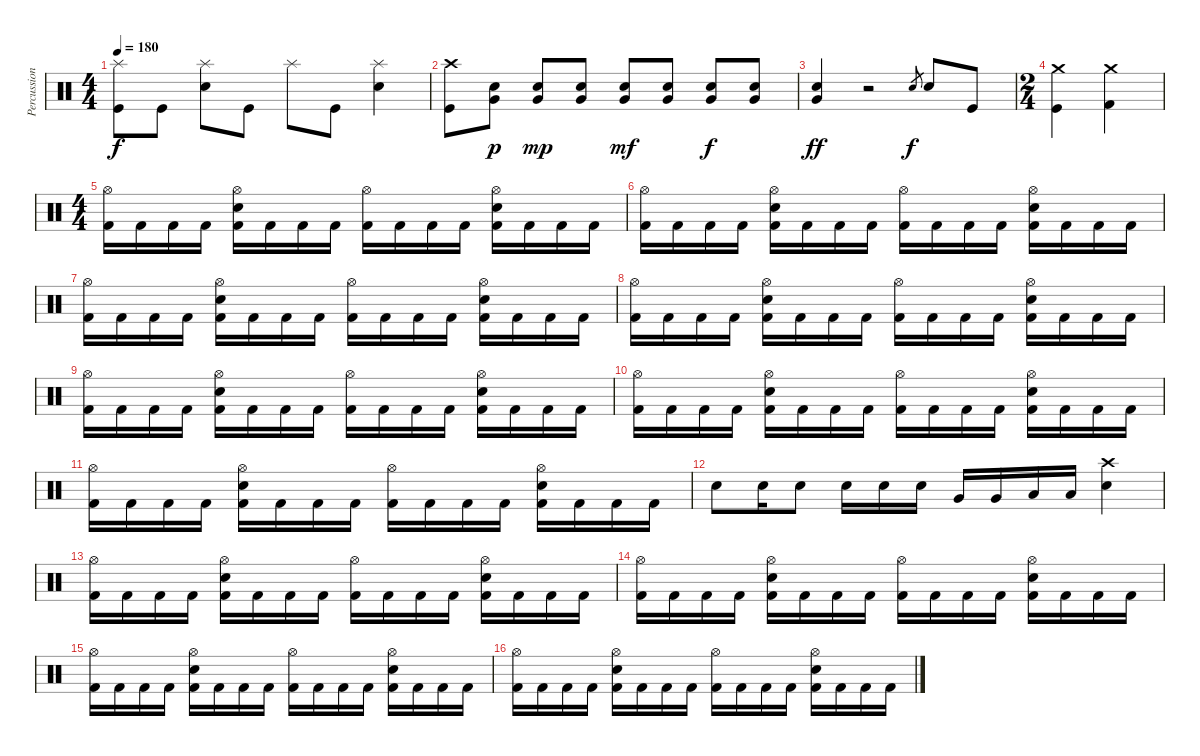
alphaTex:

\track ("Percussion" "Percussion") {instrument percussion}
\staff {score}
\articulation defaults
\ts (4 4)
\tempo 180
\clef neutral
\ks c
("Splash (hit)" "Kick (hit)").8{dy f} "Kick (hit)".8 ("Splash (hit)" "Electric Snare (hit)").8 "Kick (hit)".8 "Splash (hit)".8 "Kick (hit)".8 ("Splash (hit)" "Electric Snare (hit)").4 |
("Crash high (hit)" "Kick (hit)").8 ("Snare (hit) 2" "Very Low Tom (hit)").8{dy p} ("Snare (hit) 2" "Very Low Tom (hit)").8{dy mp} ("Snare (hit) 2" "Very Low Tom (hit)").8 ("Snare (hit) 2" "Very Low Tom (hit)").8{dy mf} ("Snare (hit) 2" "Very Low Tom (hit)").8 ("Snare (hit) 2" "Very Low Tom (hit)").8{dy f} ("Snare (hit) 2" "Very Low Tom (hit)").8 |
("Snare (hit) 2" "Very Low Tom (hit)").4{dy ff} r.2 "Snare (hit) 2".8{gr dy f} "Snare (hit) 2".8 "Kick (hit)".8 |
\ts (2 4)
("Crash medium (hit)" "Kick (hit)").4 ("Crash medium (hit)" "Kick (hit) 2").4 |
\ts (4 4)
("Hi-Hat (open)" "Kick (hit) 2").16 "Kick (hit) 2".16 "Kick (hit) 2".16 "Kick (hit) 2".16 ("Hi-Hat (open)" "Electric Snare (hit)" "Kick (hit) 2").16 "Kick (hit) 2".16 "Kick (hit) 2".16 "Kick (hit) 2".16 ("Hi-Hat (open)" "Kick (hit) 2").16 "Kick (hit) 2".16 "Kick (hit) 2".16 "Kick (hit) 2".16 ("Hi-Hat (open)" "Electric Snare (hit)" "Kick (hit) 2").16 "Kick (hit) 2".16 "Kick (hit) 2".16 "Kick (hit) 2".16 |
("Hi-Hat (open)" "Kick (hit) 2").16 "Kick (hit) 2".16 "Kick (hit) 2".16 "Kick (hit) 2".16 ("Hi-Hat (open)" "Electric Snare (hit)" "Kick (hit) 2").16 "Kick (hit) 2".16 "Kick (hit) 2".16 "Kick (hit) 2".16 ("Hi-Hat (open)" "Kick (hit) 2").16 "Kick (hit) 2".16 "Kick (hit) 2".16 "Kick (hit) 2".16 ("Hi-Hat (open)" "Electric Snare (hit)" "Kick (hit) 2").16 "Kick (hit) 2".16 "Kick (hit) 2".16 "Kick (hit) 2".16 |
("Hi-Hat (open)" "Kick (hit) 2").16 "Kick (hit) 2".16 "Kick (hit) 2".16 "Kick (hit) 2".16 ("Hi-Hat (open)" "Electric Snare (hit)" "Kick (hit) 2").16 "Kick (hit) 2".16 "Kick (hit) 2".16 "Kick (hit) 2".16 ("Hi-Hat (open)" "Kick (hit) 2").16 "Kick (hit) 2".16 "Kick (hit) 2".16 "Kick (hit) 2".16 ("Hi-Hat (open)" "Electric Snare (hit)" "Kick (hit) 2").16 "Kick (hit) 2".16 "Kick (hit) 2".16 "Kick (hit) 2".16 |
("Hi-Hat (open)" "Kick (hit) 2").16 "Kick (hit) 2".16 "Kick (hit) 2".16 "Kick (hit) 2".16 ("Hi-Hat (open)" "Electric Snare (hit)" "Kick (hit) 2").16 "Kick (hit) 2".16 "Kick (hit) 2".16 "Kick (hit) 2".16 ("Hi-Hat (open)" "Kick (hit) 2").16 "Kick (hit) 2".16 "Kick (hit) 2".16 "Kick (hit) 2".16 ("Hi-Hat (open)" "Electric Snare (hit)" "Kick (hit) 2").16 "Kick (hit) 2".16 "Kick (hit) 2".16 "Kick (hit) 2".16 |
("Hi-Hat (open)" "Kick (hit) 2").16 "Kick (hit) 2".16 "Kick (hit) 2".16 "Kick (hit) 2".16 ("Hi-Hat (open)" "Electric Snare (hit)" "Kick (hit) 2").16 "Kick (hit) 2".16 "Kick (hit) 2".16 "Kick (hit) 2".16 ("Hi-Hat (open)" "Kick (hit) 2").16 "Kick (hit) 2".16 "Kick (hit) 2".16 "Kick (hit) 2".16 ("Hi-Hat (open)" "Electric Snare (hit)" "Kick (hit) 2").16 "Kick (hit) 2".16 "Kick (hit) 2".16 "Kick (hit) 2".16 |
("Hi-Hat (open)" "Kick (hit) 2").16 "Kick (hit) 2".16 "Kick (hit) 2".16 "Kick (hit) 2".16 ("Hi-Hat (open)" "Electric Snare (hit)" "Kick (hit) 2").16 "Kick (hit) 2".16 "Kick (hit) 2".16 "Kick (hit) 2".16 ("Hi-Hat (open)" "Kick (hit) 2").16 "Kick (hit) 2".16 "Kick (hit) 2".16 "Kick (hit) 2".16 ("Hi-Hat (open)" "Electric Snare (hit)" "Kick (hit) 2").16 "Kick (hit) 2".16 "Kick (hit) 2".16 "Kick (hit) 2".16 |
("Hi-Hat (open)" "Kick (hit) 2").16 "Kick (hit) 2".16 "Kick (hit) 2".16 "Kick (hit) 2".16 ("Hi-Hat (open)" "Electric Snare (hit)" "Kick (hit) 2").16 "Kick (hit) 2".16 "Kick (hit) 2".16 "Kick (hit) 2".16 ("Hi-Hat (open)" "Kick (hit) 2").16 "Kick (hit) 2".16 "Kick (hit) 2".16 "Kick (hit) 2".16 ("Hi-Hat (open)" "Electric Snare (hit)" "Kick (hit) 2").16 "Kick (hit) 2".16 "Kick (hit) 2".16 "Kick (hit) 2".16 |
"Electric Snare (hit)".8 "Electric Snare (hit)".16 "Electric Snare (hit)".8 "Electric Snare (hit)".16 "Electric Snare (hit)".16 "Electric Snare (hit)".16 "Very Low Tom (hit)".16 "Very Low Tom (hit)".16 "Low Floor Tom (hit)".16 "Low Floor Tom (hit)".16 ("Crash high (hit)" "Electric Snare (hit)").4 |
("Hi-Hat (open)" "Kick (hit) 2").16 "Kick (hit) 2".16 "Kick (hit) 2".16 "Kick (hit) 2".16 ("Hi-Hat (open)" "Electric Snare (hit)" "Kick (hit) 2").16 "Kick (hit) 2".16 "Kick (hit) 2".16 "Kick (hit) 2".16 ("Hi-Hat (open)" "Kick (hit) 2").16 "Kick (hit) 2".16 "Kick (hit) 2".16 "Kick (hit) 2".16 ("Hi-Hat (open)" "Electric Snare (hit)" "Kick (hit) 2").16 "Kick (hit) 2".16 "Kick (hit) 2".16 "Kick (hit) 2".16 |
("Hi-Hat (open)" "Kick (hit) 2").16 "Kick (hit) 2".16 "Kick (hit) 2".16 "Kick (hit) 2".16 ("Hi-Hat (open)" "Electric Snare (hit)" "Kick (hit) 2").16 "Kick (hit) 2".16 "Kick (hit) 2".16 "Kick (hit) 2".16 ("Hi-Hat (open)" "Kick (hit) 2").16 "Kick (hit) 2".16 "Kick (hit) 2".16 "Kick (hit) 2".16 ("Hi-Hat (open)" "Electric Snare (hit)" "Kick (hit) 2").16 "Kick (hit) 2".16 "Kick (hit) 2".16 "Kick (hit) 2".16 |
("Hi-Hat (open)" "Kick (hit) 2").16 "Kick (hit) 2".16 "Kick (hit) 2".16 "Kick (hit) 2".16 ("Hi-Hat (open)" "Electric Snare (hit)" "Kick (hit) 2").16 "Kick (hit) 2".16 "Kick (hit) 2".16 "Kick (hit) 2".16 ("Hi-Hat (open)" "Kick (hit) 2").16 "Kick (hit) 2".16 "Kick (hit) 2".16 "Kick (hit) 2".16 ("Hi-Hat (open)" "Electric Snare (hit)" "Kick (hit) 2").16 "Kick (hit) 2".16 "Kick (hit) 2".16 "Kick (hit) 2".16 |
("Hi-Hat (open)" "Kick (hit) 2").16 "Kick (hit) 2".16 "Kick (hit) 2".16 "Kick (hit) 2".16 ("Hi-Hat (open)" "Electric Snare (hit)" "Kick (hit) 2").16 "Kick (hit) 2".16 "Kick (hit) 2".16 "Kick (hit) 2".16 ("Hi-Hat (open)" "Kick (hit) 2").16 "Kick (hit) 2".16 "Kick (hit) 2".16 "Kick (hit) 2".16 ("Hi-Hat (open)" "Electric Snare (hit)" "Kick (hit) 2").16 "Kick (hit) 2".16 "Kick (hit) 2".16 "Kick (hit) 2".16
